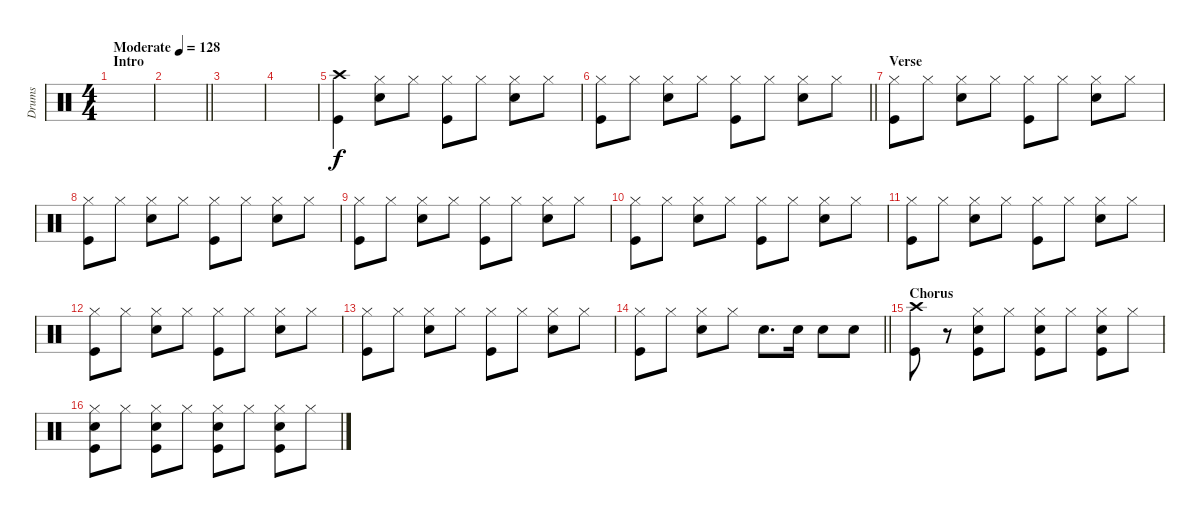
\track ("Drums" "Drums") {instrument percussion}
\staff {score}
\articulation defaults
\ts (4 4)
\section ("" "Intro")
\tempo (128 "Moderate")
\clef neutral
\ks c
|
\barLineRight lightlight
|
|
|
("Crash high (hit)" "Kick (hit)").4 ("Hi-Hat (closed)" "Snare (hit) 2").8 "Hi-Hat (closed)".8 ("Hi-Hat (closed)" "Kick (hit)").8 "Hi-Hat (closed)".8 ("Hi-Hat (closed)" "Snare (hit) 2").8 "Hi-Hat (closed)".8 |
\barLineRight lightlight
("Hi-Hat (closed)" "Kick (hit)").8 "Hi-Hat (closed)".8 ("Hi-Hat (closed)" "Snare (hit) 2").8 "Hi-Hat (closed)".8 ("Hi-Hat (closed)" "Kick (hit)").8 "Hi-Hat (closed)".8 ("Hi-Hat (closed)" "Snare (hit) 2").8 "Hi-Hat (closed)".8 |
\section ("" "Verse")
("Hi-Hat (closed)" "Kick (hit)").8 "Hi-Hat (closed)".8 ("Hi-Hat (closed)" "Snare (hit) 2").8 "Hi-Hat (closed)".8 ("Hi-Hat (closed)" "Kick (hit)").8 "Hi-Hat (closed)".8 ("Hi-Hat (closed)" "Snare (hit) 2").8 "Hi-Hat (closed)".8 |
("Hi-Hat (closed)" "Kick (hit)").8 "Hi-Hat (closed)".8 ("Hi-Hat (closed)" "Snare (hit) 2").8 "Hi-Hat (closed)".8 ("Hi-Hat (closed)" "Kick (hit)").8 "Hi-Hat (closed)".8 ("Hi-Hat (closed)" "Snare (hit) 2").8 "Hi-Hat (closed)".8 |
("Hi-Hat (closed)" "Kick (hit)").8 "Hi-Hat (closed)".8 ("Hi-Hat (closed)" "Snare (hit) 2").8 "Hi-Hat (closed)".8 ("Hi-Hat (closed)" "Kick (hit)").8 "Hi-Hat (closed)".8 ("Hi-Hat (closed)" "Snare (hit) 2").8 "Hi-Hat (closed)".8 |
("Hi-Hat (closed)" "Kick (hit)").8 "Hi-Hat (closed)".8 ("Hi-Hat (closed)" "Snare (hit) 2").8 "Hi-Hat (closed)".8 ("Hi-Hat (closed)" "Kick (hit)").8 "Hi-Hat (closed)".8 ("Hi-Hat (closed)" "Snare (hit) 2").8 "Hi-Hat (closed)".8 |
("Hi-Hat (closed)" "Kick (hit)").8 "Hi-Hat (closed)".8 ("Hi-Hat (closed)" "Snare (hit) 2").8 "Hi-Hat (closed)".8 ("Hi-Hat (closed)" "Kick (hit)").8 "Hi-Hat (closed)".8 ("Hi-Hat (closed)" "Snare (hit) 2").8 "Hi-Hat (closed)".8 |
("Hi-Hat (closed)" "Kick (hit)").8 "Hi-Hat (closed)".8 ("Hi-Hat (closed)" "Snare (hit) 2").8 "Hi-Hat (closed)".8 ("Hi-Hat (closed)" "Kick (hit)").8 "Hi-Hat (closed)".8 ("Hi-Hat (closed)" "Snare (hit) 2").8 "Hi-Hat (closed)".8 |
("Hi-Hat (closed)" "Kick (hit)").8 "Hi-Hat (closed)".8 ("Hi-Hat (closed)" "Snare (hit) 2").8 "Hi-Hat (closed)".8 ("Hi-Hat (closed)" "Kick (hit)").8 "Hi-Hat (closed)".8 ("Hi-Hat (closed)" "Snare (hit) 2").8 "Hi-Hat (closed)".8 |
\barLineRight lightlight
("Hi-Hat (closed)" "Kick (hit)").8 "Hi-Hat (closed)".8 ("Hi-Hat (closed)" "Snare (hit) 2").8 "Hi-Hat (closed)".8 "Snare (hit) 2".8{d} "Snare (hit) 2".16 "Snare (hit) 2".8 "Snare (hit) 2".8 |
\section ("" "Chorus")
("Crash high (hit)" "Kick (hit)").8 r.8 ("Hi-Hat (closed)" "Snare (hit) 2" "Kick (hit)").8 "Hi-Hat (closed)".8 ("Hi-Hat (closed)" "Snare (hit) 2" "Kick (hit)").8 "Hi-Hat (closed)".8 ("Hi-Hat (closed)" "Snare (hit) 2" "Kick (hit)").8 "Hi-Hat (closed)".8 |
("Hi-Hat (closed)" "Snare (hit) 2" "Kick (hit)").8 "Hi-Hat (closed)".8 ("Hi-Hat (closed)" "Snare (hit) 2" "Kick (hit)").8 "Hi-Hat (closed)".8 ("Hi-Hat (closed)" "Snare (hit) 2" "Kick (hit)").8 "Hi-Hat (closed)".8 ("Hi-Hat (closed)" "Snare (hit) 2" "Kick (hit)").8 "Hi-Hat (closed)".8
